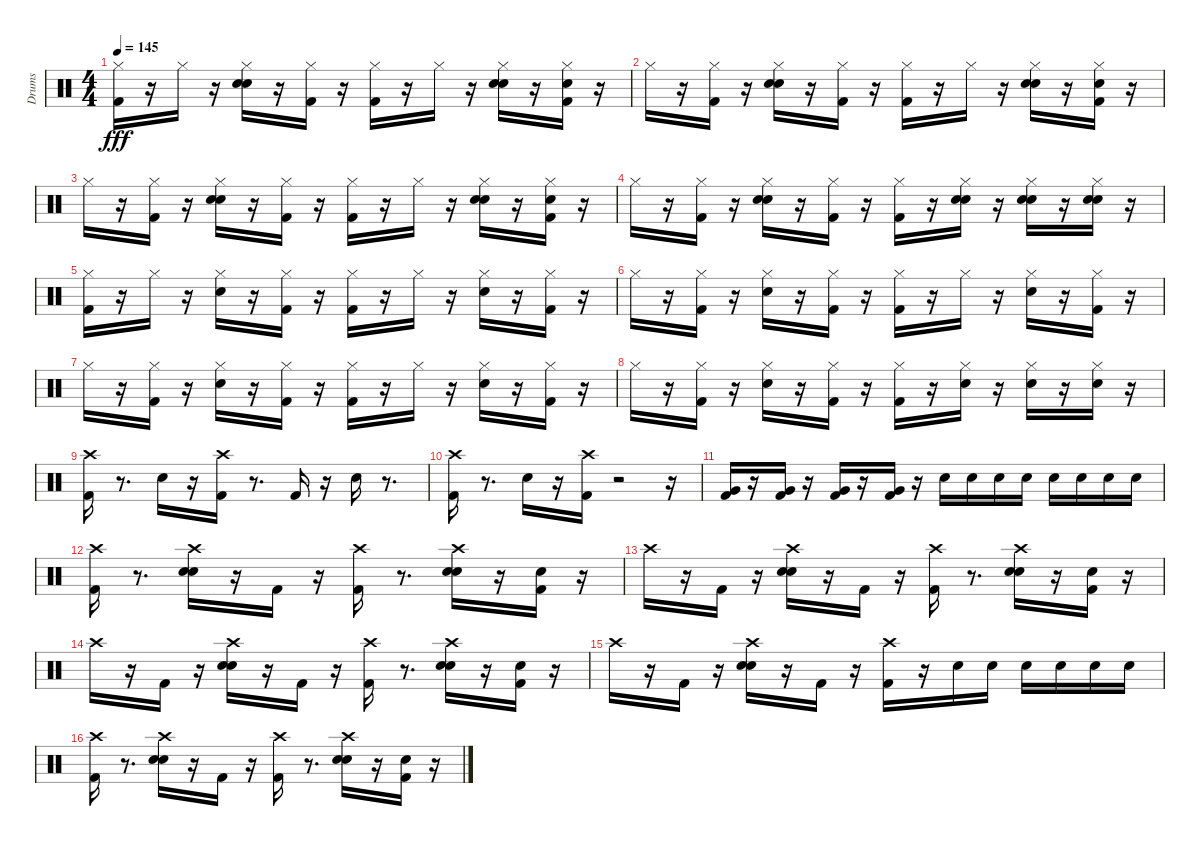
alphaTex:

\track ("Drums" "Drums") {instrument percussion}
\staff {score}
\articulation defaults
\ts (4 4)
\tempo 145
\clef neutral
\ks c
("Hi-Hat (closed)" "Kick (hit) 2").16{dy fff} r.16 "Hi-Hat (closed)".16 r.16 ("Hand Clap (hit)" "Hi-Hat (closed)" "Electric Snare (hit)").16 r.16 ("Hi-Hat (closed)" "Kick (hit) 2").16 r.16 ("Hi-Hat (closed)" "Kick (hit) 2").16 r.16 "Hi-Hat (closed)".16 r.16 ("Hand Clap (hit)" "Hi-Hat (closed)" "Electric Snare (hit)").16 r.16 ("Hand Clap (hit)" "Hi-Hat (closed)" "Kick (hit) 2").16 r.16 |
"Hi-Hat (closed)".16 r.16 ("Kick (hit) 2" "Hi-Hat (closed)").16 r.16 ("Electric Snare (hit)" "Hand Clap (hit)" "Hi-Hat (closed)").16 r.16 ("Kick (hit) 2" "Hi-Hat (closed)").16 r.16 ("Kick (hit) 2" "Hi-Hat (closed)").16 r.16 "Hi-Hat (closed)".16 r.16 ("Electric Snare (hit)" "Hi-Hat (closed)" "Hand Clap (hit)").16 r.16 ("Kick (hit) 2" "Hi-Hat (closed)" "Hand Clap (hit)").16 r.16 |
"Hi-Hat (closed)".16 r.16 ("Kick (hit) 2" "Hi-Hat (closed)").16 r.16 ("Electric Snare (hit)" "Hand Clap (hit)" "Hi-Hat (closed)").16 r.16 ("Kick (hit) 2" "Hi-Hat (closed)").16 r.16 ("Kick (hit) 2" "Hi-Hat (closed)").16 r.16 "Hi-Hat (closed)".16 r.16 ("Electric Snare (hit)" "Hand Clap (hit)" "Hi-Hat (closed)").16 r.16 ("Kick (hit) 2" "Hi-Hat (closed)" "Hand Clap (hit)").16 r.16 |
"Hi-Hat (closed)".16 r.16 ("Kick (hit) 2" "Hi-Hat (closed)").16 r.16 ("Electric Snare (hit)" "Hand Clap (hit)" "Hi-Hat (closed)").16 r.16 ("Kick (hit) 2" "Hi-Hat (closed)").16 r.16 ("Kick (hit) 2" "Hi-Hat (closed)").16 r.16 ("Electric Snare (hit)" "Hand Clap (hit)" "Hi-Hat (closed)").16 r.16 ("Electric Snare (hit)" "Hand Clap (hit)" "Hi-Hat (closed)").16 r.16 ("Electric Snare (hit)" "Hand Clap (hit)" "Hi-Hat (closed)").16 r.16 |
("Hi-Hat (closed)" "Kick (hit) 2").16 r.16 "Hi-Hat (closed)".16 r.16 ("Hi-Hat (closed)" "Electric Snare (hit)").16 r.16 ("Hi-Hat (closed)" "Kick (hit) 2").16 r.16 ("Hi-Hat (closed)" "Kick (hit) 2").16 r.16 "Hi-Hat (closed)".16 r.16 ("Hi-Hat (closed)" "Electric Snare (hit)").16 r.16 ("Hi-Hat (closed)" "Kick (hit) 2").16 r.16 |
"Hi-Hat (closed)".16 r.16 ("Kick (hit) 2" "Hi-Hat (closed)").16 r.16 ("Electric Snare (hit)" "Hi-Hat (closed)").16 r.16 ("Kick (hit) 2" "Hi-Hat (closed)").16 r.16 ("Kick (hit) 2" "Hi-Hat (closed)").16 r.16 "Hi-Hat (closed)".16 r.16 ("Electric Snare (hit)" "Hi-Hat (closed)").16 r.16 ("Kick (hit) 2" "Hi-Hat (closed)").16 r.16 |
"Hi-Hat (closed)".16 r.16 ("Kick (hit) 2" "Hi-Hat (closed)").16 r.16 ("Electric Snare (hit)" "Hi-Hat (closed)").16 r.16 ("Kick (hit) 2" "Hi-Hat (closed)").16 r.16 ("Kick (hit) 2" "Hi-Hat (closed)").16 r.16 "Hi-Hat (closed)".16 r.16 ("Electric Snare (hit)" "Hi-Hat (closed)").16 r.16 ("Kick (hit) 2" "Hi-Hat (closed)").16 r.16 |
"Hi-Hat (closed)".16 r.16 ("Kick (hit) 2" "Hi-Hat (closed)").16 r.16 ("Electric Snare (hit)" "Hi-Hat (closed)").16 r.16 ("Kick (hit) 2" "Hi-Hat (closed)").16 r.16 ("Kick (hit) 2" "Hi-Hat (closed)").16 r.16 ("Electric Snare (hit)" "Hi-Hat (closed)").16 r.16 ("Electric Snare (hit)" "Hi-Hat (closed)").16 r.16 ("Electric Snare (hit)" "Hi-Hat (closed)").16 r.16 |
("Crash high (hit)" "Kick (hit) 2").16 r.8{d} "Electric Snare (hit)".16 r.16 ("Crash high (hit)" "Kick (hit) 2").16 r.8{d} "Kick (hit) 2".16 r.16 "Electric Snare (hit)".16 r.8{d} |
("Crash high (hit)" "Kick (hit) 2").16 r.8{d} "Electric Snare (hit)".16 r.16 ("Crash high (hit)" "Kick (hit) 2").16 r.2 r.16 |
("Very Low Tom (hit)" "Kick (hit) 2").16 r.16 ("Very Low Tom (hit)" "Kick (hit) 2").16 r.16 ("Very Low Tom (hit)" "Kick (hit) 2").16 r.16 ("Very Low Tom (hit)" "Kick (hit) 2").16 r.16 "Electric Snare (hit)".16 "Electric Snare (hit)".16 "Electric Snare (hit)".16 "Electric Snare (hit)".16 "Electric Snare (hit)".16 "Electric Snare (hit)".16 "Electric Snare (hit)".16 "Electric Snare (hit)".16 |
("Kick (hit) 2" "Crash high (hit)").16 r.8{d} ("Crash high (hit)" "Hand Clap (hit)" "Electric Snare (hit)").16 r.16 "Kick (hit) 2".16 r.16 ("Crash high (hit)" "Kick (hit) 2").16 r.8{d} ("Crash high (hit)" "Hand Clap (hit)" "Electric Snare (hit)").16 r.16 ("Hand Clap (hit)" "Kick (hit) 2").16 r.16 |
"Crash high (hit)".16 r.16 "Kick (hit) 2".16 r.16 ("Crash high (hit)" "Hand Clap (hit)" "Electric Snare (hit)").16 r.16 "Kick (hit) 2".16 r.16 ("Crash high (hit)" "Kick (hit) 2").16 r.8{d} ("Crash high (hit)" "Hand Clap (hit)" "Electric Snare (hit)").16 r.16 ("Hand Clap (hit)" "Kick (hit) 2").16 r.16 |
"Crash high (hit)".16 r.16 "Kick (hit) 2".16 r.16 ("Crash high (hit)" "Hand Clap (hit)" "Electric Snare (hit)").16 r.16 "Kick (hit) 2".16 r.16 ("Crash high (hit)" "Kick (hit) 2").16 r.8{d} ("Crash high (hit)" "Hand Clap (hit)" "Electric Snare (hit)").16 r.16 ("Hand Clap (hit)" "Kick (hit) 2").16 r.16 |
"Crash high (hit)".16 r.16 "Kick (hit) 2".16 r.16 ("Crash high (hit)" "Electric Snare (hit)" "Hand Clap (hit)").16 r.16 "Kick (hit) 2".16 r.16 ("Crash high (hit)" "Kick (hit) 2").16 r.16 "Electric Snare (hit)".16 "Electric Snare (hit)".16 "Electric Snare (hit)".16 "Electric Snare (hit)".16 "Electric Snare (hit)".16 "Electric Snare (hit)".16 |
("Kick (hit) 2" "Crash high (hit)").16 r.8{d} ("Crash high (hit)" "Hand Clap (hit)" "Electric Snare (hit)").16 r.16 "Kick (hit) 2".16 r.16 ("Crash high (hit)" "Kick (hit) 2").16 r.8{d} ("Crash high (hit)" "Hand Clap (hit)" "Electric Snare (hit)").16 r.16 ("Hand Clap (hit)" "Kick (hit) 2").16 r.16
